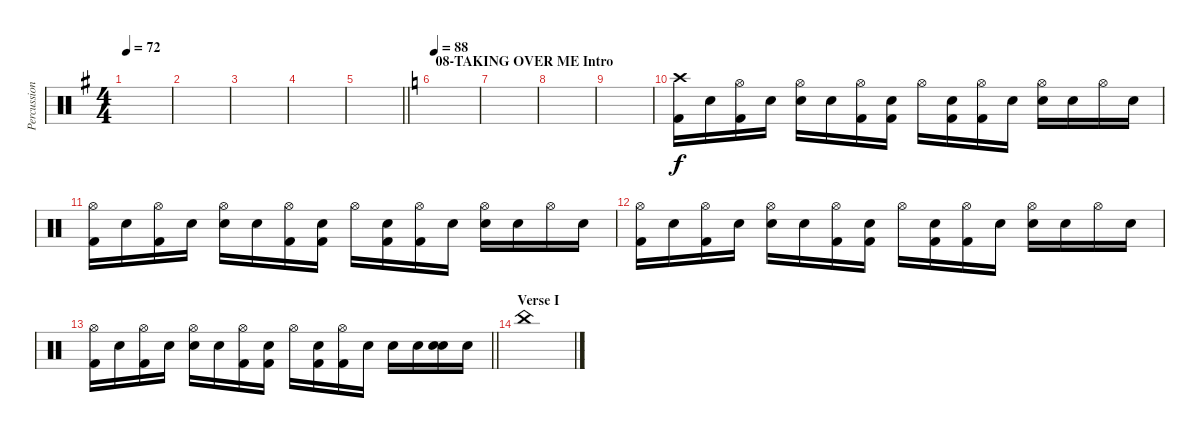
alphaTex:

\track ("Percussion" "Percussion") {instrument percussion}
\staff {score}
\articulation defaults
\ts (4 4)
\tempo 72
\clef neutral
\ks g
|
|
|
|
\barLineRight lightlight
|
\section ("" "08-TAKING OVER ME Intro")
\tempo 88
\ks c
|
|
|
|
("Crash high (hit)" "Kick (hit) 2").16 "Snare (hit)".16 ("Hi-Hat (open)" "Kick (hit) 2").16 "Snare (hit)".16 ("Hi-Hat (open)" "Electric Snare (hit)").16 "Snare (hit)".16 ("Hi-Hat (open)" "Kick (hit) 2").16 ("Snare (hit)" "Kick (hit) 2").16 "Hi-Hat (open)".16 ("Snare (hit)" "Kick (hit) 2").16 ("Hi-Hat (open)" "Kick (hit) 2").16 "Snare (hit)".16 ("Hi-Hat (open)" "Electric Snare (hit)").16 "Snare (hit)".16 "Hi-Hat (open)".16 "Snare (hit)".16 |
("Hi-Hat (open)" "Kick (hit) 2").16 "Snare (hit)".16 ("Hi-Hat (open)" "Kick (hit) 2").16 "Snare (hit)".16 ("Hi-Hat (open)" "Electric Snare (hit)").16 "Snare (hit)".16 ("Hi-Hat (open)" "Kick (hit) 2").16 ("Snare (hit)" "Kick (hit) 2").16 "Hi-Hat (open)".16 ("Snare (hit)" "Kick (hit) 2").16 ("Hi-Hat (open)" "Kick (hit) 2").16 "Snare (hit)".16 ("Hi-Hat (open)" "Electric Snare (hit)").16 "Snare (hit)".16 "Hi-Hat (open)".16 "Snare (hit)".16 |
("Hi-Hat (open)" "Kick (hit) 2").16 "Snare (hit)".16 ("Hi-Hat (open)" "Kick (hit) 2").16 "Snare (hit)".16 ("Hi-Hat (open)" "Electric Snare (hit)").16 "Snare (hit)".16 ("Hi-Hat (open)" "Kick (hit) 2").16 ("Snare (hit)" "Kick (hit) 2").16 "Hi-Hat (open)".16 ("Snare (hit)" "Kick (hit) 2").16 ("Hi-Hat (open)" "Kick (hit) 2").16 "Snare (hit)".16 ("Hi-Hat (open)" "Electric Snare (hit)").16 "Snare (hit)".16 "Hi-Hat (open)".16 "Snare (hit)".16 |
\barLineRight lightlight
("Hi-Hat (open)" "Kick (hit) 2").16 "Snare (hit)".16 ("Hi-Hat (open)" "Kick (hit) 2").16 "Snare (hit)".16 ("Hi-Hat (open)" "Electric Snare (hit)").16 "Snare (hit)".16 ("Hi-Hat (open)" "Kick (hit) 2").16 ("Snare (hit)" "Kick (hit) 2").16 "Hi-Hat (open)".16 ("Snare (hit)" "Kick (hit) 2").16 ("Hi-Hat (open)" "Kick (hit) 2").16 "Snare (hit)".16 "Snare (hit) 2".16 "Snare (hit)".16 ("Snare (hit)" "Snare (hit) 2").16 "Snare (hit) 2".16 |
\section ("" "Verse I")
"China (hit)".1
